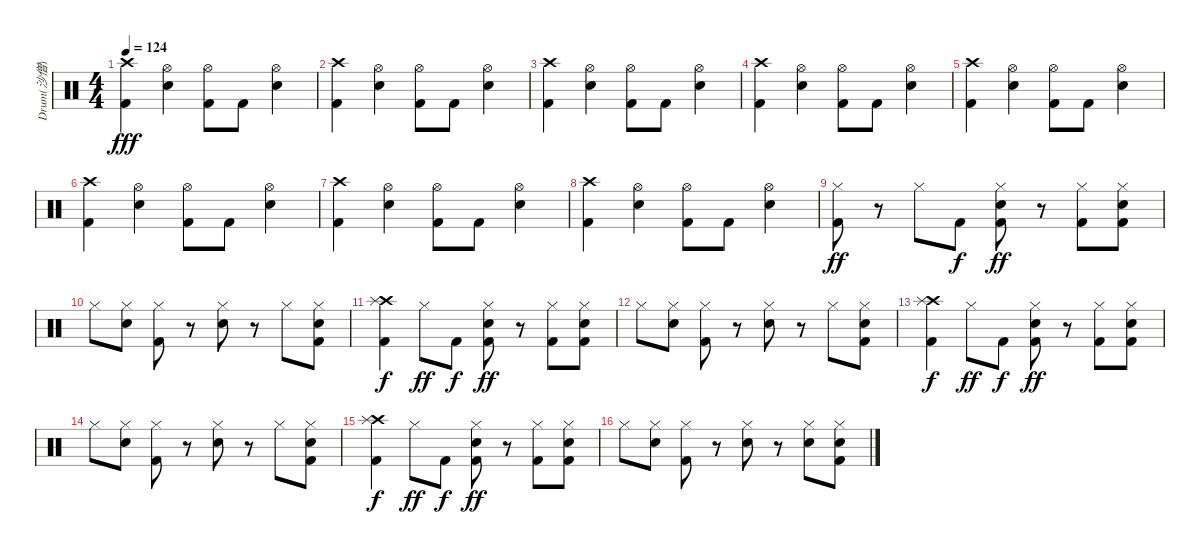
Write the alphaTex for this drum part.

\track ("Drum(沙僧)" "Drum(沙僧)") {instrument percussion}
\staff {score}
\articulation defaults
\ts (4 4)
\tempo 124
\clef neutral
\ks c
("Crash high (hit)" "Kick (hit) 2").4{dy fff} ("Hi-Hat (open)" "Electric Snare (hit)").4 ("Hi-Hat (open)" "Kick (hit) 2").8 "Kick (hit) 2".8 ("Hi-Hat (open)" "Electric Snare (hit)").4 |
("Crash high (hit)" "Kick (hit) 2").4 ("Hi-Hat (open)" "Electric Snare (hit)").4 ("Hi-Hat (open)" "Kick (hit) 2").8 "Kick (hit) 2".8 ("Hi-Hat (open)" "Electric Snare (hit)").4 |
("Crash high (hit)" "Kick (hit) 2").4 ("Hi-Hat (open)" "Electric Snare (hit)").4 ("Hi-Hat (open)" "Kick (hit) 2").8 "Kick (hit) 2".8 ("Hi-Hat (open)" "Electric Snare (hit)").4 |
("Crash high (hit)" "Kick (hit) 2").4 ("Hi-Hat (open)" "Electric Snare (hit)").4 ("Hi-Hat (open)" "Kick (hit) 2").8 "Kick (hit) 2".8 ("Hi-Hat (open)" "Electric Snare (hit)").4 |
("Crash high (hit)" "Kick (hit) 2").4 ("Hi-Hat (open)" "Electric Snare (hit)").4 ("Hi-Hat (open)" "Kick (hit) 2").8 "Kick (hit) 2".8 ("Hi-Hat (open)" "Electric Snare (hit)").4 |
("Crash high (hit)" "Kick (hit) 2").4 ("Hi-Hat (open)" "Electric Snare (hit)").4 ("Hi-Hat (open)" "Kick (hit) 2").8 "Kick (hit) 2".8 ("Hi-Hat (open)" "Electric Snare (hit)").4 |
("Crash high (hit)" "Kick (hit) 2").4 ("Hi-Hat (open)" "Electric Snare (hit)").4 ("Hi-Hat (open)" "Kick (hit) 2").8 "Kick (hit) 2".8 ("Hi-Hat (open)" "Electric Snare (hit)").4 |
("Crash high (hit)" "Kick (hit) 2").4 ("Hi-Hat (open)" "Electric Snare (hit)").4 ("Hi-Hat (open)" "Kick (hit) 2").8 "Kick (hit) 2".8 ("Hi-Hat (open)" "Electric Snare (hit)").4 |
("Hi-Hat (closed)" "Kick (hit) 2").8{dy ff} r.8 "Hi-Hat (closed)".8 "Kick (hit) 2".8{dy f} ("Hi-Hat (closed)" "Electric Snare (hit)" "Kick (hit) 2").8{dy ff} r.8 ("Hi-Hat (closed)" "Kick (hit) 2").8 ("Hi-Hat (closed)" "Electric Snare (hit)" "Kick (hit) 2").8 |
"Hi-Hat (closed)".8 ("Hi-Hat (closed)" "Electric Snare (hit)").8 ("Hi-Hat (closed)" "Kick (hit) 2").8 r.8 ("Hi-Hat (closed)" "Electric Snare (hit)").8 r.8 "Hi-Hat (closed)".8 ("Hi-Hat (closed)" "Electric Snare (hit)" "Kick (hit) 2").8 |
("Crash high (hit)" "Splash (hit)" "Kick (hit) 2").4{dy f} "Hi-Hat (closed)".8{dy ff} "Kick (hit) 2".8{dy f} ("Hi-Hat (closed)" "Electric Snare (hit)" "Kick (hit) 2").8{dy ff} r.8 ("Hi-Hat (closed)" "Kick (hit) 2").8 ("Hi-Hat (closed)" "Electric Snare (hit)" "Kick (hit) 2").8 |
"Hi-Hat (closed)".8 ("Hi-Hat (closed)" "Electric Snare (hit)").8 ("Hi-Hat (closed)" "Kick (hit) 2").8 r.8 ("Hi-Hat (closed)" "Electric Snare (hit)").8 r.8 "Hi-Hat (closed)".8 ("Hi-Hat (closed)" "Electric Snare (hit)" "Kick (hit) 2").8 |
("Crash high (hit)" "Splash (hit)" "Kick (hit) 2").4{dy f} "Hi-Hat (closed)".8{dy ff} "Kick (hit) 2".8{dy f} ("Hi-Hat (closed)" "Electric Snare (hit)" "Kick (hit) 2").8{dy ff} r.8 ("Hi-Hat (closed)" "Kick (hit) 2").8 ("Hi-Hat (closed)" "Electric Snare (hit)" "Kick (hit) 2").8 |
"Hi-Hat (closed)".8 ("Hi-Hat (closed)" "Electric Snare (hit)").8 ("Hi-Hat (closed)" "Kick (hit) 2").8 r.8 ("Hi-Hat (closed)" "Electric Snare (hit)").8 r.8 "Hi-Hat (closed)".8 ("Hi-Hat (closed)" "Electric Snare (hit)" "Kick (hit) 2").8 |
("Crash high (hit)" "Splash (hit)" "Kick (hit) 2").4{dy f} "Hi-Hat (closed)".8{dy ff} "Kick (hit) 2".8{dy f} ("Hi-Hat (closed)" "Electric Snare (hit)" "Kick (hit) 2").8{dy ff} r.8 ("Hi-Hat (closed)" "Kick (hit) 2").8 ("Hi-Hat (closed)" "Electric Snare (hit)" "Kick (hit) 2").8 |
"Hi-Hat (closed)".8 ("Hi-Hat (closed)" "Electric Snare (hit)").8 ("Hi-Hat (closed)" "Kick (hit) 2").8 r.8 ("Hi-Hat (closed)" "Electric Snare (hit)").8 r.8 ("Hi-Hat (closed)" "Electric Snare (hit)").8 ("Hi-Hat (closed)" "Electric Snare (hit)" "Kick (hit) 2").8
